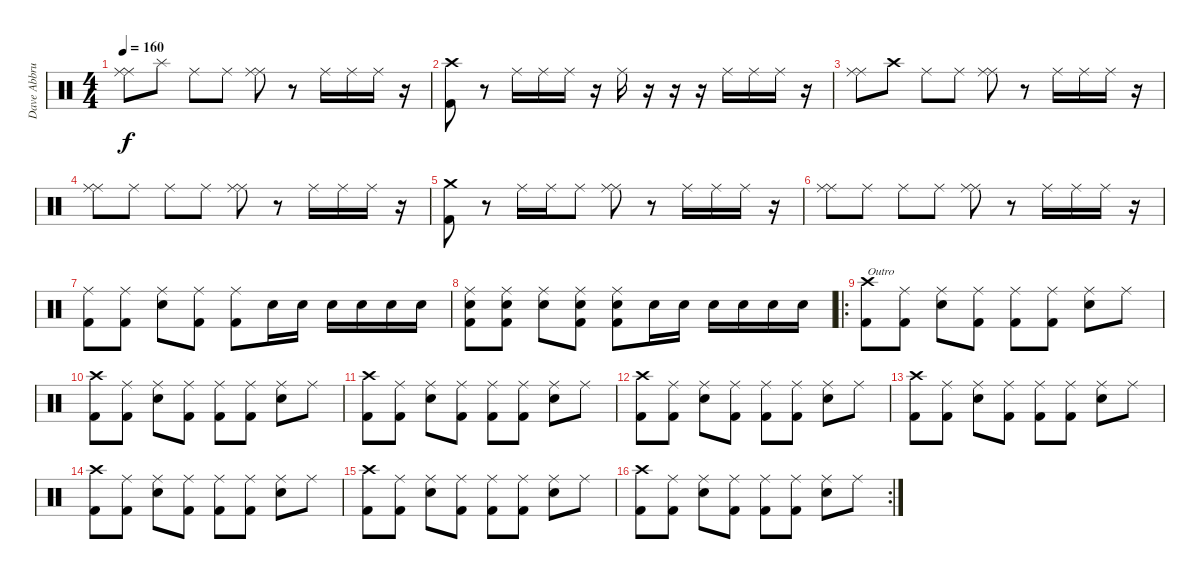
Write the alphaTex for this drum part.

\track ("Dave Abbruzzese" "Dave Abbru") {instrument percussion}
\staff {score}
\articulation defaults
\ts (4 4)
\tempo 160
\clef neutral
\ks c
("Ride (middle)" "Ride (middle)").8{dy f} "Splash (hit)".8 "Ride (middle)".8 "Ride (middle)".8 ("Ride (middle)" "Ride (middle)").8 r.8 "Ride (middle)".16 "Ride (middle)".16 "Ride (middle)".16 r.16 |
("Crash high (hit)" "Kick (hit) 2").8 r.8 "Ride (middle)".16 "Ride (middle)".16 "Ride (middle)".16 r.16 "Ride (middle)".16 r.16 r.16 r.16 "Ride (middle)".16 "Ride (middle)".16 "Ride (middle)".16 r.16 |
("Ride (middle)" "Ride (middle)").8 "Crash high (hit)".8 "Ride (middle)".8 "Ride (middle)".8 ("Ride (middle)" "Ride (middle)").8 r.8 "Ride (middle)".16 "Ride (middle)".16 "Ride (middle)".16 r.16 |
("Ride (middle)" "Ride (middle)").8 "Ride (middle)".8 "Ride (middle)".8 "Ride (middle)".8 ("Ride (middle)" "Ride (middle)").8 r.8 "Ride (middle)".16 "Ride (middle)".16 "Ride (middle)".16 r.16 |
("Crash medium (hit)" "Kick (hit) 2").8 r.8 "Ride (middle)".16 "Ride (middle)".16 "Ride (middle)".8 ("Ride (middle)" "Ride (middle)").8 r.8 "Ride (middle)".16 "Ride (middle)".16 "Ride (middle)".16 r.16 |
("Ride (middle)" "Ride (middle)").8 "Ride (middle)".8 "Ride (middle)".8 "Ride (middle)".8 ("Ride (middle)" "Ride (middle)").8 r.8 "Ride (middle)".16 "Ride (middle)".16 "Ride (middle)".16 r.16 |
("Ride (middle)" "Kick (hit) 2").8 ("Ride (middle)" "Kick (hit) 2").8 ("Ride (middle)" "Snare (hit) 2").8 ("Ride (middle)" "Kick (hit) 2").8 ("Ride (middle)" "Kick (hit) 2").8 "Snare (hit) 2".16 "Snare (hit) 2".16 "Snare (hit) 2".16 "Snare (hit) 2".16 "Snare (hit) 2".16 "Snare (hit) 2".16 |
("Ride (middle)" "Snare (hit) 2" "Kick (hit) 2").8 ("Ride (middle)" "Snare (hit) 2" "Kick (hit) 2").8 ("Ride (middle)" "Snare (hit) 2").8 ("Ride (middle)" "Snare (hit) 2" "Kick (hit) 2").8 ("Ride (middle)" "Snare (hit) 2" "Kick (hit) 2").8 "Snare (hit) 2".16 "Snare (hit) 2".16 "Snare (hit) 2".16 "Snare (hit) 2".16 "Snare (hit) 2".16 "Snare (hit) 2".16 |
\ro
("Crash high (hit)" "Kick (hit) 2").8{txt "Outro"} ("Ride (middle)" "Kick (hit) 2").8 ("Ride (middle)" "Snare (hit) 2").8 ("Ride (middle)" "Kick (hit) 2").8 ("Ride (middle)" "Kick (hit) 2").8 ("Ride (middle)" "Kick (hit) 2").8 ("Ride (middle)" "Snare (hit) 2").8 "Ride (middle)".8 |
("Crash high (hit)" "Kick (hit) 2").8 ("Ride (middle)" "Kick (hit) 2").8 ("Ride (middle)" "Snare (hit) 2").8 ("Ride (middle)" "Kick (hit) 2").8 ("Ride (middle)" "Kick (hit) 2").8 ("Ride (middle)" "Kick (hit) 2").8 ("Ride (middle)" "Snare (hit) 2").8 "Ride (middle)".8 |
("Crash high (hit)" "Kick (hit) 2").8 ("Ride (middle)" "Kick (hit) 2").8 ("Ride (middle)" "Snare (hit) 2").8 ("Ride (middle)" "Kick (hit) 2").8 ("Ride (middle)" "Kick (hit) 2").8 ("Ride (middle)" "Kick (hit) 2").8 ("Ride (middle)" "Snare (hit) 2").8 "Ride (middle)".8 |
("Crash high (hit)" "Kick (hit) 2").8 ("Ride (middle)" "Kick (hit) 2").8 ("Ride (middle)" "Snare (hit) 2").8 ("Ride (middle)" "Kick (hit) 2").8 ("Ride (middle)" "Kick (hit) 2").8 ("Ride (middle)" "Kick (hit) 2").8 ("Ride (middle)" "Snare (hit) 2").8 "Ride (middle)".8 |
("Crash high (hit)" "Kick (hit) 2").8 ("Ride (middle)" "Kick (hit) 2").8 ("Ride (middle)" "Snare (hit) 2").8 ("Ride (middle)" "Kick (hit) 2").8 ("Ride (middle)" "Kick (hit) 2").8 ("Ride (middle)" "Kick (hit) 2").8 ("Ride (middle)" "Snare (hit) 2").8 "Ride (middle)".8 |
("Crash high (hit)" "Kick (hit) 2").8 ("Ride (middle)" "Kick (hit) 2").8 ("Ride (middle)" "Snare (hit) 2").8 ("Ride (middle)" "Kick (hit) 2").8 ("Ride (middle)" "Kick (hit) 2").8 ("Ride (middle)" "Kick (hit) 2").8 ("Ride (middle)" "Snare (hit) 2").8 "Ride (middle)".8 |
("Crash high (hit)" "Kick (hit) 2").8 ("Ride (middle)" "Kick (hit) 2").8 ("Ride (middle)" "Snare (hit) 2").8 ("Ride (middle)" "Kick (hit) 2").8 ("Ride (middle)" "Kick (hit) 2").8 ("Ride (middle)" "Kick (hit) 2").8 ("Ride (middle)" "Snare (hit) 2").8 "Ride (middle)".8 |
\rc 2
("Crash high (hit)" "Kick (hit) 2").8 ("Ride (middle)" "Kick (hit) 2").8 ("Ride (middle)" "Snare (hit) 2").8 ("Ride (middle)" "Kick (hit) 2").8 ("Ride (middle)" "Kick (hit) 2").8 ("Ride (middle)" "Kick (hit) 2").8 ("Ride (middle)" "Snare (hit) 2").8 "Ride (middle)".8
